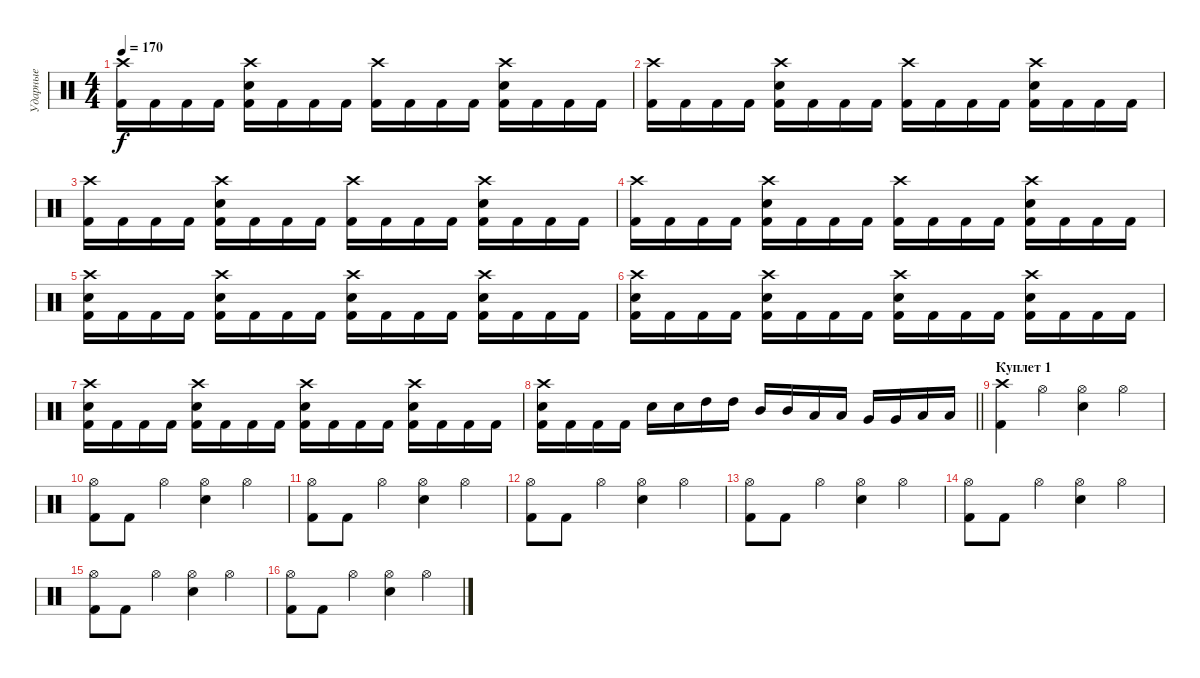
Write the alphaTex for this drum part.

\track ("Ударные" "Ударные") {instrument percussion}
\staff {score}
\articulation defaults
\ts (4 4)
\tempo 170
\clef neutral
\ks c
("Crash high (hit)" "Kick (hit) 2").16{dy f} "Kick (hit) 2".16 "Kick (hit) 2".16 "Kick (hit) 2".16 ("Crash high (hit)" "Electric Snare (hit)" "Kick (hit) 2").16 "Kick (hit) 2".16 "Kick (hit) 2".16 "Kick (hit) 2".16 ("Crash high (hit)" "Kick (hit) 2").16 "Kick (hit) 2".16 "Kick (hit) 2".16 "Kick (hit) 2".16 ("Crash high (hit)" "Electric Snare (hit)" "Kick (hit) 2").16 "Kick (hit) 2".16 "Kick (hit) 2".16 "Kick (hit) 2".16 |
("Crash high (hit)" "Kick (hit) 2").16 "Kick (hit) 2".16 "Kick (hit) 2".16 "Kick (hit) 2".16 ("Crash high (hit)" "Electric Snare (hit)" "Kick (hit) 2").16 "Kick (hit) 2".16 "Kick (hit) 2".16 "Kick (hit) 2".16 ("Crash high (hit)" "Kick (hit) 2").16 "Kick (hit) 2".16 "Kick (hit) 2".16 "Kick (hit) 2".16 ("Crash high (hit)" "Electric Snare (hit)" "Kick (hit) 2").16 "Kick (hit) 2".16 "Kick (hit) 2".16 "Kick (hit) 2".16 |
("Crash high (hit)" "Kick (hit) 2").16 "Kick (hit) 2".16 "Kick (hit) 2".16 "Kick (hit) 2".16 ("Crash high (hit)" "Electric Snare (hit)" "Kick (hit) 2").16 "Kick (hit) 2".16 "Kick (hit) 2".16 "Kick (hit) 2".16 ("Crash high (hit)" "Kick (hit) 2").16 "Kick (hit) 2".16 "Kick (hit) 2".16 "Kick (hit) 2".16 ("Crash high (hit)" "Electric Snare (hit)" "Kick (hit) 2").16 "Kick (hit) 2".16 "Kick (hit) 2".16 "Kick (hit) 2".16 |
("Crash high (hit)" "Kick (hit) 2").16 "Kick (hit) 2".16 "Kick (hit) 2".16 "Kick (hit) 2".16 ("Crash high (hit)" "Electric Snare (hit)" "Kick (hit) 2").16 "Kick (hit) 2".16 "Kick (hit) 2".16 "Kick (hit) 2".16 ("Crash high (hit)" "Kick (hit) 2").16 "Kick (hit) 2".16 "Kick (hit) 2".16 "Kick (hit) 2".16 ("Crash high (hit)" "Electric Snare (hit)" "Kick (hit) 2").16 "Kick (hit) 2".16 "Kick (hit) 2".16 "Kick (hit) 2".16 |
("Crash high (hit)" "Electric Snare (hit)" "Kick (hit) 2").16 "Kick (hit) 2".16 "Kick (hit) 2".16 "Kick (hit) 2".16 ("Crash high (hit)" "Electric Snare (hit)" "Kick (hit) 2").16 "Kick (hit) 2".16 "Kick (hit) 2".16 "Kick (hit) 2".16 ("Crash high (hit)" "Electric Snare (hit)" "Kick (hit) 2").16 "Kick (hit) 2".16 "Kick (hit) 2".16 "Kick (hit) 2".16 ("Crash high (hit)" "Electric Snare (hit)" "Kick (hit) 2").16 "Kick (hit) 2".16 "Kick (hit) 2".16 "Kick (hit) 2".16 |
("Crash high (hit)" "Electric Snare (hit)" "Kick (hit) 2").16 "Kick (hit) 2".16 "Kick (hit) 2".16 "Kick (hit) 2".16 ("Crash high (hit)" "Electric Snare (hit)" "Kick (hit) 2").16 "Kick (hit) 2".16 "Kick (hit) 2".16 "Kick (hit) 2".16 ("Crash high (hit)" "Electric Snare (hit)" "Kick (hit) 2").16 "Kick (hit) 2".16 "Kick (hit) 2".16 "Kick (hit) 2".16 ("Crash high (hit)" "Electric Snare (hit)" "Kick (hit) 2").16 "Kick (hit) 2".16 "Kick (hit) 2".16 "Kick (hit) 2".16 |
("Crash high (hit)" "Electric Snare (hit)" "Kick (hit) 2").16 "Kick (hit) 2".16 "Kick (hit) 2".16 "Kick (hit) 2".16 ("Crash high (hit)" "Electric Snare (hit)" "Kick (hit) 2").16 "Kick (hit) 2".16 "Kick (hit) 2".16 "Kick (hit) 2".16 ("Crash high (hit)" "Electric Snare (hit)" "Kick (hit) 2").16 "Kick (hit) 2".16 "Kick (hit) 2".16 "Kick (hit) 2".16 ("Crash high (hit)" "Electric Snare (hit)" "Kick (hit) 2").16 "Kick (hit) 2".16 "Kick (hit) 2".16 "Kick (hit) 2".16 |
\barLineRight lightlight
("Crash high (hit)" "Electric Snare (hit)" "Kick (hit) 2").16 "Kick (hit) 2".16 "Kick (hit) 2".16 "Kick (hit) 2".16 "Electric Snare (hit)".16 "Electric Snare (hit)".16 "High Tom (hit)".16 "High Tom (hit)".16 "Mid Tom (hit)".16 "Mid Tom (hit)".16 "Low Tom (hit)".16 "Low Tom (hit)".16 "Very Low Tom (hit)".16 "Very Low Tom (hit)".16 "Low Tom (hit)".16 "Low Tom (hit)".16 |
\section ("" "Куплет 1")
("Crash high (hit)" "Kick (hit) 2").4 "Hi-Hat (open)".4 ("Hi-Hat (open)" "Electric Snare (hit)").4 "Hi-Hat (open)".4 |
("Hi-Hat (open)" "Kick (hit) 2").8 "Kick (hit) 2".8 "Hi-Hat (open)".4 ("Hi-Hat (open)" "Electric Snare (hit)").4 "Hi-Hat (open)".4 |
("Hi-Hat (open)" "Kick (hit) 2").8 "Kick (hit) 2".8 "Hi-Hat (open)".4 ("Hi-Hat (open)" "Electric Snare (hit)").4 "Hi-Hat (open)".4 |
("Hi-Hat (open)" "Kick (hit) 2").8 "Kick (hit) 2".8 "Hi-Hat (open)".4 ("Hi-Hat (open)" "Electric Snare (hit)").4 "Hi-Hat (open)".4 |
("Hi-Hat (open)" "Kick (hit) 2").8 "Kick (hit) 2".8 "Hi-Hat (open)".4 ("Hi-Hat (open)" "Electric Snare (hit)").4 "Hi-Hat (open)".4 |
("Hi-Hat (open)" "Kick (hit) 2").8 "Kick (hit) 2".8 "Hi-Hat (open)".4 ("Hi-Hat (open)" "Electric Snare (hit)").4 "Hi-Hat (open)".4 |
("Hi-Hat (open)" "Kick (hit) 2").8 "Kick (hit) 2".8 "Hi-Hat (open)".4 ("Hi-Hat (open)" "Electric Snare (hit)").4 "Hi-Hat (open)".4 |
("Hi-Hat (open)" "Kick (hit) 2").8 "Kick (hit) 2".8 "Hi-Hat (open)".4 ("Hi-Hat (open)" "Electric Snare (hit)").4 "Hi-Hat (open)".4
